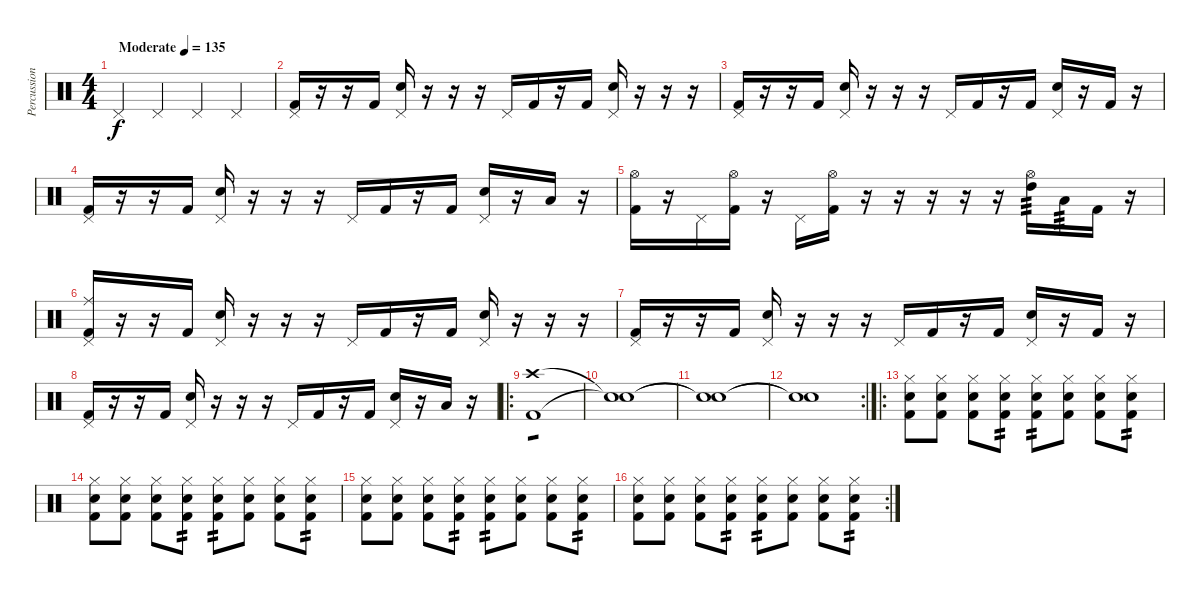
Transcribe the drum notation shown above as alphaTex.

\track ("Percussion" "Percussion") {instrument percussion}
\staff {score}
\articulation defaults
\ts (4 4)
\tempo (135 "Moderate")
\clef neutral
\ks c "Pedal Hi-Hat (hit)".4{dy f} "Pedal Hi-Hat (hit)".4 "Pedal Hi-Hat (hit)".4 "Pedal Hi-Hat (hit)".4
|
("Pedal Hi-Hat (hit)" "Kick (hit) 2").16 r.16 r.16 "Kick (hit) 2".16 ("Electric Snare (hit)" "Pedal Hi-Hat (hit)").16 r.16 r.16 r.16 "Pedal Hi-Hat (hit)".16 "Kick (hit) 2".16 r.16 "Kick (hit) 2".16 ("Electric Snare (hit)" "Pedal Hi-Hat (hit)").16 r.16 r.16 r.16 |
("Pedal Hi-Hat (hit)" "Kick (hit) 2").16 r.16 r.16 "Kick (hit) 2".16 ("Electric Snare (hit)" "Pedal Hi-Hat (hit)").16 r.16 r.16 r.16 "Pedal Hi-Hat (hit)".16 "Kick (hit) 2".16 r.16 "Kick (hit) 2".16 ("Electric Snare (hit)" "Pedal Hi-Hat (hit)").16 r.16 "Kick (hit) 2".16 r.16 |
("Pedal Hi-Hat (hit)" "Kick (hit) 2").16 r.16 r.16 "Kick (hit) 2".16 ("Electric Snare (hit)" "Pedal Hi-Hat (hit)").16 r.16 r.16 r.16 "Pedal Hi-Hat (hit)".16 "Kick (hit) 2".16 r.16 "Kick (hit) 2".16 ("Electric Snare (hit)" "Pedal Hi-Hat (hit)").16 r.16 "Low Tom (hit)".16 r.16 |
("Hi-Hat (open)" "Kick (hit) 2").16 r.16 "Pedal Hi-Hat (hit)".16 ("Hi-Hat (open)" "Kick (hit) 2").16 r.16 "Pedal Hi-Hat (hit)".16 ("Hi-Hat (open)" "Kick (hit) 2").16 r.16 r.16 r.16 r.16 r.16 ("Hi-Hat (open)" "High Tom (hit)").16{tp 3} "Low Tom (hit)".16{tp 3} "Kick (hit) 2".16 r.16 |
("Ride (middle)" "Pedal Hi-Hat (hit)" "Kick (hit) 2").16 r.16 r.16 "Kick (hit) 2".16 ("Electric Snare (hit)" "Pedal Hi-Hat (hit)").16 r.16 r.16 r.16 "Pedal Hi-Hat (hit)".16 "Kick (hit) 2".16 r.16 "Kick (hit) 2".16 ("Electric Snare (hit)" "Pedal Hi-Hat (hit)").16 r.16 r.16 r.16 |
("Pedal Hi-Hat (hit)" "Kick (hit) 2").16 r.16 r.16 "Kick (hit) 2".16 ("Electric Snare (hit)" "Pedal Hi-Hat (hit)").16 r.16 r.16 r.16 "Pedal Hi-Hat (hit)".16 "Kick (hit) 2".16 r.16 "Kick (hit) 2".16 ("Electric Snare (hit)" "Pedal Hi-Hat (hit)").16 r.16 "Kick (hit) 2".16 r.16 |
("Pedal Hi-Hat (hit)" "Kick (hit) 2").16 r.16 r.16 "Kick (hit) 2".16 ("Electric Snare (hit)" "Pedal Hi-Hat (hit)").16 r.16 r.16 r.16 "Pedal Hi-Hat (hit)".16 "Kick (hit) 2".16 r.16 "Kick (hit) 2".16 ("Electric Snare (hit)" "Pedal Hi-Hat (hit)").16 r.16 "Low Tom (hit)".16 r.16 |
\ro
("Crash high (hit)" "Kick (hit) 2").1{tp 1} |
("Snare (hit)"{t} "Snare (hit)"{t}).1 |
("Snare (hit)"{t} "Snare (hit)"{t}).1 |
\rc 2
("Snare (hit)"{t} "Snare (hit)"{t}).1 |
\ro
("Hi-Hat (closed)" "Electric Snare (hit)" "Kick (hit) 2").8 ("Hi-Hat (closed)" "Electric Snare (hit)" "Kick (hit) 2").8 ("Hi-Hat (closed)" "Electric Snare (hit)" "Kick (hit) 2").8 ("Hi-Hat (closed)" "Electric Snare (hit)" "Kick (hit) 2").8{tp 2} ("Hi-Hat (closed)" "Electric Snare (hit)" "Kick (hit) 2").8{tp 2} ("Hi-Hat (closed)" "Electric Snare (hit)" "Kick (hit) 2").8 ("Hi-Hat (closed)" "Electric Snare (hit)" "Kick (hit) 2").8 ("Hi-Hat (closed)" "Electric Snare (hit)" "Kick (hit) 2").8{tp 2} |
("Hi-Hat (closed)" "Electric Snare (hit)" "Kick (hit) 2").8 ("Hi-Hat (closed)" "Electric Snare (hit)" "Kick (hit) 2").8 ("Hi-Hat (closed)" "Electric Snare (hit)" "Kick (hit) 2").8 ("Hi-Hat (closed)" "Electric Snare (hit)" "Kick (hit) 2").8{tp 2} ("Hi-Hat (closed)" "Electric Snare (hit)" "Kick (hit) 2").8{tp 2} ("Hi-Hat (closed)" "Electric Snare (hit)" "Kick (hit) 2").8 ("Hi-Hat (closed)" "Electric Snare (hit)" "Kick (hit) 2").8 ("Hi-Hat (closed)" "Electric Snare (hit)" "Kick (hit) 2").8{tp 2} |
("Hi-Hat (closed)" "Electric Snare (hit)" "Kick (hit) 2").8 ("Hi-Hat (closed)" "Electric Snare (hit)" "Kick (hit) 2").8 ("Hi-Hat (closed)" "Electric Snare (hit)" "Kick (hit) 2").8 ("Hi-Hat (closed)" "Electric Snare (hit)" "Kick (hit) 2").8{tp 2} ("Hi-Hat (closed)" "Electric Snare (hit)" "Kick (hit) 2").8{tp 2} ("Hi-Hat (closed)" "Electric Snare (hit)" "Kick (hit) 2").8 ("Hi-Hat (closed)" "Electric Snare (hit)" "Kick (hit) 2").8 ("Hi-Hat (closed)" "Electric Snare (hit)" "Kick (hit) 2").8{tp 2} |
\rc 2
("Hi-Hat (closed)" "Electric Snare (hit)" "Kick (hit) 2").8 ("Hi-Hat (closed)" "Electric Snare (hit)" "Kick (hit) 2").8 ("Hi-Hat (closed)" "Electric Snare (hit)" "Kick (hit) 2").8 ("Hi-Hat (closed)" "Electric Snare (hit)" "Kick (hit) 2").8{tp 2} ("Hi-Hat (closed)" "Electric Snare (hit)" "Kick (hit) 2").8{tp 2} ("Hi-Hat (closed)" "Electric Snare (hit)" "Kick (hit) 2").8 ("Hi-Hat (closed)" "Electric Snare (hit)" "Kick (hit) 2").8 ("Hi-Hat (closed)" "Electric Snare (hit)" "Kick (hit) 2").8{tp 2}
